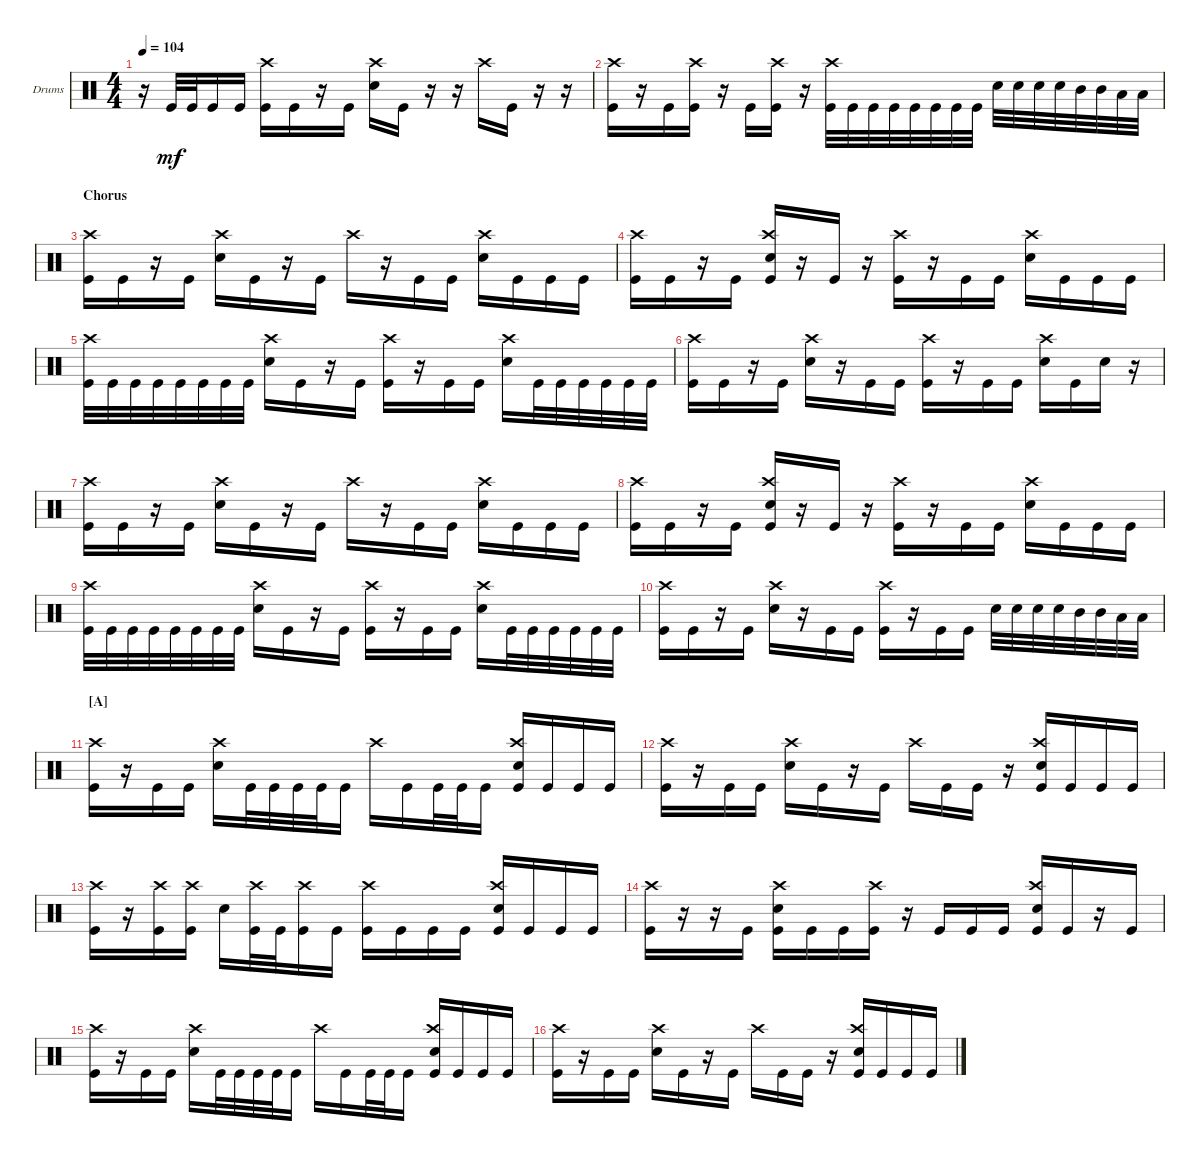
\bracketExtendMode groupsimilarinstruments
\firstSystemTrackNameOrientation horizontal
\otherSystemsTrackNameOrientation horizontal
\track ("Drumkit" "Drums") {instrument percussion}
\staff {score}
\articulation defaults
\ts (4 4)
\tempo 104
\clef neutral
\ks c
r.16{dy mf} "Kick (hit)".32 "Kick (hit)".32 "Kick (hit)".16 "Kick (hit)".16 ("Kick (hit)" "Crash high (hit)").16 "Kick (hit)".16 r.16 "Kick (hit)".16 ("Snare (hit) 2" "Crash high (hit)").16 "Kick (hit)".16 r.16 r.16 "Crash high (hit)".16 "Kick (hit)".16 r.16 r.16 |
("Kick (hit)" "Crash high (hit)").16 r.16 "Kick (hit)".16 ("Kick (hit)" "Crash high (hit)").16 r.16 "Kick (hit)".16 ("Kick (hit)" "Crash high (hit)").16 r.16 ("Kick (hit)" "Crash high (hit)").32 "Kick (hit)".32 "Kick (hit)".32 "Kick (hit)".32 "Kick (hit)".32 "Kick (hit)".32 "Kick (hit)".32 "Kick (hit)".32 "Snare (hit) 2".32 "Snare (hit) 2".32 "Snare (hit) 2".32 "Snare (hit) 2".32 "Mid Tom (hit)".32 "Mid Tom (hit)".32 "Low Tom (hit)".32 "Low Tom (hit)".32 |
\section ("" "Chorus")
("Kick (hit)" "Crash high (hit)").16 "Kick (hit)".16 r.16 "Kick (hit)".16 ("Snare (hit) 2" "Crash high (hit)").16 "Kick (hit)".16 r.16 "Kick (hit)".16 "Crash high (hit)".16 r.16 "Kick (hit)".16 "Kick (hit)".16 ("Snare (hit) 2" "Crash high (hit)").16 "Kick (hit)".16 "Kick (hit)".16 "Kick (hit)".16 |
("Kick (hit)" "Crash high (hit)").16 "Kick (hit)".16 r.16 "Kick (hit)".16 ("Snare (hit) 2" "Kick (hit)" "Crash high (hit)").16 r.16 "Kick (hit)".16 r.16 ("Kick (hit)" "Crash high (hit)").16 r.16 "Kick (hit)".16 "Kick (hit)".16 ("Snare (hit) 2" "Crash high (hit)").16 "Kick (hit)".16 "Kick (hit)".16 "Kick (hit)".16 |
("Kick (hit)" "Crash high (hit)").32 "Kick (hit)".32 "Kick (hit)".32 "Kick (hit)".32 "Kick (hit)".32 "Kick (hit)".32 "Kick (hit)".32 "Kick (hit)".32 ("Snare (hit) 2" "Crash high (hit)").16 "Kick (hit)".16 r.16 "Kick (hit)".16 ("Kick (hit)" "Crash high (hit)").16 r.16 "Kick (hit)".16 "Kick (hit)".16 ("Snare (hit) 2" "Crash high (hit)").16 "Kick (hit)".32 "Kick (hit)".32 "Kick (hit)".32 "Kick (hit)".32 "Kick (hit)".32 "Kick (hit)".32 |
("Kick (hit)" "Crash high (hit)").16 "Kick (hit)".16 r.16 "Kick (hit)".16 ("Snare (hit) 2" "Crash high (hit)").16 r.16 "Kick (hit)".16 "Kick (hit)".16 ("Kick (hit)" "Crash high (hit)").16 r.16 "Kick (hit)".16 "Kick (hit)".16 ("Snare (hit) 2" "Crash high (hit)").16 "Kick (hit)".16 "Snare (hit) 2".16 r.16 |
("Kick (hit)" "Crash high (hit)").16 "Kick (hit)".16 r.16 "Kick (hit)".16 ("Snare (hit) 2" "Crash high (hit)").16 "Kick (hit)".16 r.16 "Kick (hit)".16 "Crash high (hit)".16 r.16 "Kick (hit)".16 "Kick (hit)".16 ("Snare (hit) 2" "Crash high (hit)").16 "Kick (hit)".16 "Kick (hit)".16 "Kick (hit)".16 |
("Kick (hit)" "Crash high (hit)").16 "Kick (hit)".16 r.16 "Kick (hit)".16 ("Snare (hit) 2" "Kick (hit)" "Crash high (hit)").16 r.16 "Kick (hit)".16 r.16 ("Kick (hit)" "Crash high (hit)").16 r.16 "Kick (hit)".16 "Kick (hit)".16 ("Snare (hit) 2" "Crash high (hit)").16 "Kick (hit)".16 "Kick (hit)".16 "Kick (hit)".16 |
("Kick (hit)" "Crash high (hit)").32 "Kick (hit)".32 "Kick (hit)".32 "Kick (hit)".32 "Kick (hit)".32 "Kick (hit)".32 "Kick (hit)".32 "Kick (hit)".32 ("Snare (hit) 2" "Crash high (hit)").16 "Kick (hit)".16 r.16 "Kick (hit)".16 ("Kick (hit)" "Crash high (hit)").16 r.16 "Kick (hit)".16 "Kick (hit)".16 ("Snare (hit) 2" "Crash high (hit)").16 "Kick (hit)".32 "Kick (hit)".32 "Kick (hit)".32 "Kick (hit)".32 "Kick (hit)".32 "Kick (hit)".32 |
("Kick (hit)" "Crash high (hit)").16 "Kick (hit)".16 r.16 "Kick (hit)".16 ("Snare (hit) 2" "Crash high (hit)").16 r.16 "Kick (hit)".16 "Kick (hit)".16 ("Kick (hit)" "Crash high (hit)").16 r.16 "Kick (hit)".16 "Kick (hit)".16 "Snare (hit) 2".32 "Snare (hit) 2".32 "Snare (hit) 2".32 "Snare (hit) 2".32 "Mid Tom (hit)".32 "Mid Tom (hit)".32 "Low Tom (hit)".32 "Low Tom (hit)".32 |
\section ("A" "")
("Kick (hit)" "Crash high (hit)").16 r.16 "Kick (hit)".16 "Kick (hit)".16 ("Snare (hit) 2" "Crash high (hit)").16 "Kick (hit)".32 "Kick (hit)".32 "Kick (hit)".32 "Kick (hit)".32 "Kick (hit)".16 "Crash high (hit)".16 "Kick (hit)".16 "Kick (hit)".32 "Kick (hit)".32 "Kick (hit)".16 ("Snare (hit) 2" "Kick (hit)" "Crash high (hit)").16 "Kick (hit)".16 "Kick (hit)".16 "Kick (hit)".16 |
("Kick (hit)" "Crash high (hit)").16 r.16 "Kick (hit)".16 "Kick (hit)".16 ("Snare (hit) 2" "Crash high (hit)").16 "Kick (hit)".16 r.16 "Kick (hit)".16 "Crash high (hit)".16 "Kick (hit)".16 "Kick (hit)".16 r.16 ("Snare (hit) 2" "Kick (hit)" "Crash high (hit)").16 "Kick (hit)".16 "Kick (hit)".16 "Kick (hit)".16 |
("Kick (hit)" "Crash high (hit)").16 r.16 ("Kick (hit)" "Crash high (hit)").16 ("Kick (hit)" "Crash high (hit)").16 "Snare (hit) 2".16 ("Kick (hit)" "Crash high (hit)").32 "Kick (hit)".32 ("Kick (hit)" "Crash high (hit)").16 "Kick (hit)".16 ("Kick (hit)" "Crash high (hit)").16 "Kick (hit)".16 "Kick (hit)".16 "Kick (hit)".16 ("Snare (hit) 2" "Kick (hit)" "Crash high (hit)").16 "Kick (hit)".16 "Kick (hit)".16 "Kick (hit)".16 |
("Kick (hit)" "Crash high (hit)").16 r.16 r.16 "Kick (hit)".16 ("Snare (hit) 2" "Kick (hit)" "Crash high (hit)").16 "Kick (hit)".16 "Kick (hit)".16 ("Kick (hit)" "Crash high (hit)").16 r.16 "Kick (hit)".16 "Kick (hit)".16 "Kick (hit)".16 ("Snare (hit) 2" "Kick (hit)" "Crash high (hit)").16 "Kick (hit)".16 r.16 "Kick (hit)".16 |
("Kick (hit)" "Crash high (hit)").16 r.16 "Kick (hit)".16 "Kick (hit)".16 ("Snare (hit) 2" "Crash high (hit)").16 "Kick (hit)".32 "Kick (hit)".32 "Kick (hit)".32 "Kick (hit)".32 "Kick (hit)".16 "Crash high (hit)".16 "Kick (hit)".16 "Kick (hit)".32 "Kick (hit)".32 "Kick (hit)".16 ("Snare (hit) 2" "Kick (hit)" "Crash high (hit)").16 "Kick (hit)".16 "Kick (hit)".16 "Kick (hit)".16 |
("Kick (hit)" "Crash high (hit)").16 r.16 "Kick (hit)".16 "Kick (hit)".16 ("Snare (hit) 2" "Crash high (hit)").16 "Kick (hit)".16 r.16 "Kick (hit)".16 "Crash high (hit)".16 "Kick (hit)".16 "Kick (hit)".16 r.16 ("Snare (hit) 2" "Kick (hit)" "Crash high (hit)").16 "Kick (hit)".16 "Kick (hit)".16 "Kick (hit)".16
